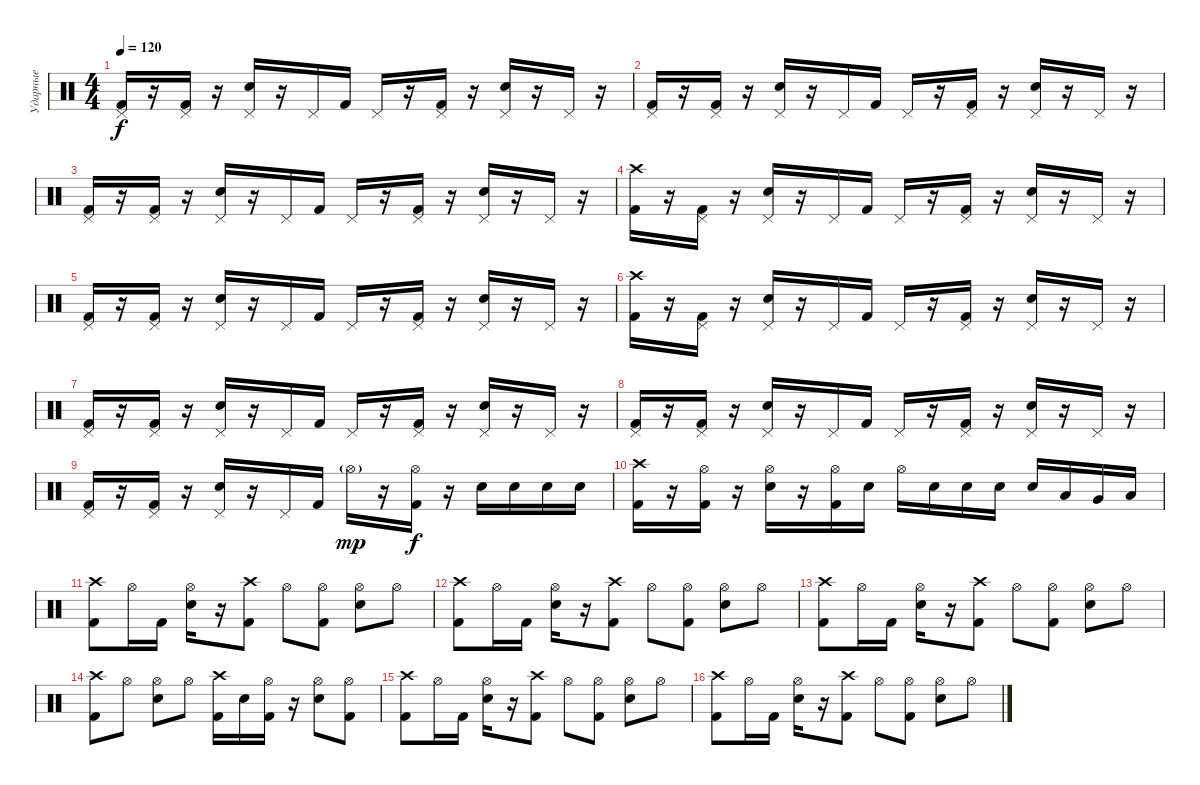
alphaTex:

\track ("Ударные" "Ударные") {instrument percussion}
\staff {score}
\articulation defaults
\ts (4 4)
\tempo 120
\clef neutral
\ks c
("Pedal Hi-Hat (hit)" "Kick (hit) 2").16{dy f} r.16 ("Pedal Hi-Hat (hit)" "Kick (hit) 2").16 r.16 ("Pedal Hi-Hat (hit)" "Electric Snare (hit)").16 r.16 "Pedal Hi-Hat (hit)".16 "Kick (hit) 2".16 "Pedal Hi-Hat (hit)".16 r.16 ("Pedal Hi-Hat (hit)" "Kick (hit) 2").16 r.16 ("Pedal Hi-Hat (hit)" "Electric Snare (hit)").16 r.16 "Pedal Hi-Hat (hit)".16 r.16 |
("Pedal Hi-Hat (hit)" "Kick (hit) 2").16 r.16 ("Pedal Hi-Hat (hit)" "Kick (hit) 2").16 r.16 ("Pedal Hi-Hat (hit)" "Electric Snare (hit)").16 r.16 "Pedal Hi-Hat (hit)".16 "Kick (hit) 2".16 "Pedal Hi-Hat (hit)".16 r.16 ("Pedal Hi-Hat (hit)" "Kick (hit) 2").16 r.16 ("Pedal Hi-Hat (hit)" "Electric Snare (hit)").16 r.16 "Pedal Hi-Hat (hit)".16 r.16 |
("Pedal Hi-Hat (hit)" "Kick (hit) 2").16 r.16 ("Pedal Hi-Hat (hit)" "Kick (hit) 2").16 r.16 ("Pedal Hi-Hat (hit)" "Electric Snare (hit)").16 r.16 "Pedal Hi-Hat (hit)".16 "Kick (hit) 2".16 "Pedal Hi-Hat (hit)".16 r.16 ("Pedal Hi-Hat (hit)" "Kick (hit) 2").16 r.16 ("Pedal Hi-Hat (hit)" "Electric Snare (hit)").16 r.16 "Pedal Hi-Hat (hit)".16 r.16 |
("Crash high (hit)" "Kick (hit) 2").16 r.16 ("Pedal Hi-Hat (hit)" "Kick (hit) 2").16 r.16 ("Pedal Hi-Hat (hit)" "Electric Snare (hit)").16 r.16 "Pedal Hi-Hat (hit)".16 "Kick (hit) 2".16 "Pedal Hi-Hat (hit)".16 r.16 ("Pedal Hi-Hat (hit)" "Kick (hit) 2").16 r.16 ("Pedal Hi-Hat (hit)" "Electric Snare (hit)").16 r.16 "Pedal Hi-Hat (hit)".16 r.16 |
("Pedal Hi-Hat (hit)" "Kick (hit) 2").16 r.16 ("Pedal Hi-Hat (hit)" "Kick (hit) 2").16 r.16 ("Pedal Hi-Hat (hit)" "Electric Snare (hit)").16 r.16 "Pedal Hi-Hat (hit)".16 "Kick (hit) 2".16 "Pedal Hi-Hat (hit)".16 r.16 ("Pedal Hi-Hat (hit)" "Kick (hit) 2").16 r.16 ("Pedal Hi-Hat (hit)" "Electric Snare (hit)").16 r.16 "Pedal Hi-Hat (hit)".16 r.16 |
("Crash high (hit)" "Kick (hit) 2").16 r.16 ("Pedal Hi-Hat (hit)" "Kick (hit) 2").16 r.16 ("Pedal Hi-Hat (hit)" "Electric Snare (hit)").16 r.16 "Pedal Hi-Hat (hit)".16 "Kick (hit) 2".16 "Pedal Hi-Hat (hit)".16 r.16 ("Pedal Hi-Hat (hit)" "Kick (hit) 2").16 r.16 ("Pedal Hi-Hat (hit)" "Electric Snare (hit)").16 r.16 "Pedal Hi-Hat (hit)".16 r.16 |
("Pedal Hi-Hat (hit)" "Kick (hit) 2").16 r.16 ("Pedal Hi-Hat (hit)" "Kick (hit) 2").16 r.16 ("Pedal Hi-Hat (hit)" "Electric Snare (hit)").16 r.16 "Pedal Hi-Hat (hit)".16 "Kick (hit) 2".16 "Pedal Hi-Hat (hit)".16 r.16 ("Pedal Hi-Hat (hit)" "Kick (hit) 2").16 r.16 ("Pedal Hi-Hat (hit)" "Electric Snare (hit)").16 r.16 "Pedal Hi-Hat (hit)".16 r.16 |
("Pedal Hi-Hat (hit)" "Kick (hit) 2").16 r.16 ("Pedal Hi-Hat (hit)" "Kick (hit) 2").16 r.16 ("Pedal Hi-Hat (hit)" "Electric Snare (hit)").16 r.16 "Pedal Hi-Hat (hit)".16 "Kick (hit) 2".16 "Pedal Hi-Hat (hit)".16 r.16 ("Pedal Hi-Hat (hit)" "Kick (hit) 2").16 r.16 ("Pedal Hi-Hat (hit)" "Electric Snare (hit)").16 r.16 "Pedal Hi-Hat (hit)".16 r.16 |
("Pedal Hi-Hat (hit)" "Kick (hit) 2").16 r.16 ("Pedal Hi-Hat (hit)" "Kick (hit) 2").16 r.16 ("Pedal Hi-Hat (hit)" "Electric Snare (hit)").16 r.16 "Pedal Hi-Hat (hit)".16 "Kick (hit) 2".16 "Hi-Hat (open)"{g}.16{dy mp} r.16 ("Hi-Hat (open)" "Kick (hit) 2").16{dy f} r.16 "Electric Snare (hit)".16 "Electric Snare (hit)".16 "Electric Snare (hit)".16 "Electric Snare (hit)".16 |
("Crash high (hit)" "Kick (hit) 2").16 r.16 ("Hi-Hat (open)" "Kick (hit) 2").16 r.16 ("Hi-Hat (open)" "Electric Snare (hit)").16 r.16 ("Hi-Hat (open)" "Kick (hit) 2").16 "Electric Snare (hit)".16 "Hi-Hat (open)".16 "Electric Snare (hit)".16 "Electric Snare (hit)".16 "Electric Snare (hit)".16 "Electric Snare (hit)".16 "Low Tom (hit)".16 "Very Low Tom (hit)".16 "Low Floor Tom (hit)".16 |
("Crash high (hit)" "Kick (hit) 2").8 "Hi-Hat (open)".16 "Kick (hit) 2".16 ("Hi-Hat (open)" "Electric Snare (hit)").16 r.16 ("Crash high (hit)" "Kick (hit) 2").8 "Hi-Hat (open)".8 ("Hi-Hat (open)" "Kick (hit) 2").8 ("Hi-Hat (open)" "Electric Snare (hit)").8 "Hi-Hat (open)".8 |
("Crash high (hit)" "Kick (hit) 2").8 "Hi-Hat (open)".16 "Kick (hit) 2".16 ("Hi-Hat (open)" "Electric Snare (hit)").16 r.16 ("Crash high (hit)" "Kick (hit) 2").8 "Hi-Hat (open)".8 ("Hi-Hat (open)" "Kick (hit) 2").8 ("Hi-Hat (open)" "Electric Snare (hit)").8 "Hi-Hat (open)".8 |
("Crash high (hit)" "Kick (hit) 2").8 "Hi-Hat (open)".16 "Kick (hit) 2".16 ("Hi-Hat (open)" "Electric Snare (hit)").16 r.16 ("Crash high (hit)" "Kick (hit) 2").8 "Hi-Hat (open)".8 ("Hi-Hat (open)" "Kick (hit) 2").8 ("Hi-Hat (open)" "Electric Snare (hit)").8 "Hi-Hat (open)".8 |
("Crash high (hit)" "Kick (hit) 2").8 "Hi-Hat (open)".8 ("Hi-Hat (open)" "Electric Snare (hit)").8 "Hi-Hat (open)".8 ("Crash high (hit)" "Kick (hit) 2").16 "Electric Snare (hit)".16 ("Hi-Hat (open)" "Kick (hit) 2").16 r.16 ("Hi-Hat (open)" "Electric Snare (hit)").8 ("Hi-Hat (open)" "Kick (hit) 2").8 |
("Crash high (hit)" "Kick (hit) 2").8 "Hi-Hat (open)".16 "Kick (hit) 2".16 ("Hi-Hat (open)" "Electric Snare (hit)").16 r.16 ("Crash high (hit)" "Kick (hit) 2").8 "Hi-Hat (open)".8 ("Hi-Hat (open)" "Kick (hit) 2").8 ("Hi-Hat (open)" "Electric Snare (hit)").8 "Hi-Hat (open)".8 |
("Crash high (hit)" "Kick (hit) 2").8 "Hi-Hat (open)".16 "Kick (hit) 2".16 ("Hi-Hat (open)" "Electric Snare (hit)").16 r.16 ("Crash high (hit)" "Kick (hit) 2").8 "Hi-Hat (open)".8 ("Hi-Hat (open)" "Kick (hit) 2").8 ("Hi-Hat (open)" "Electric Snare (hit)").8 "Hi-Hat (open)".8
